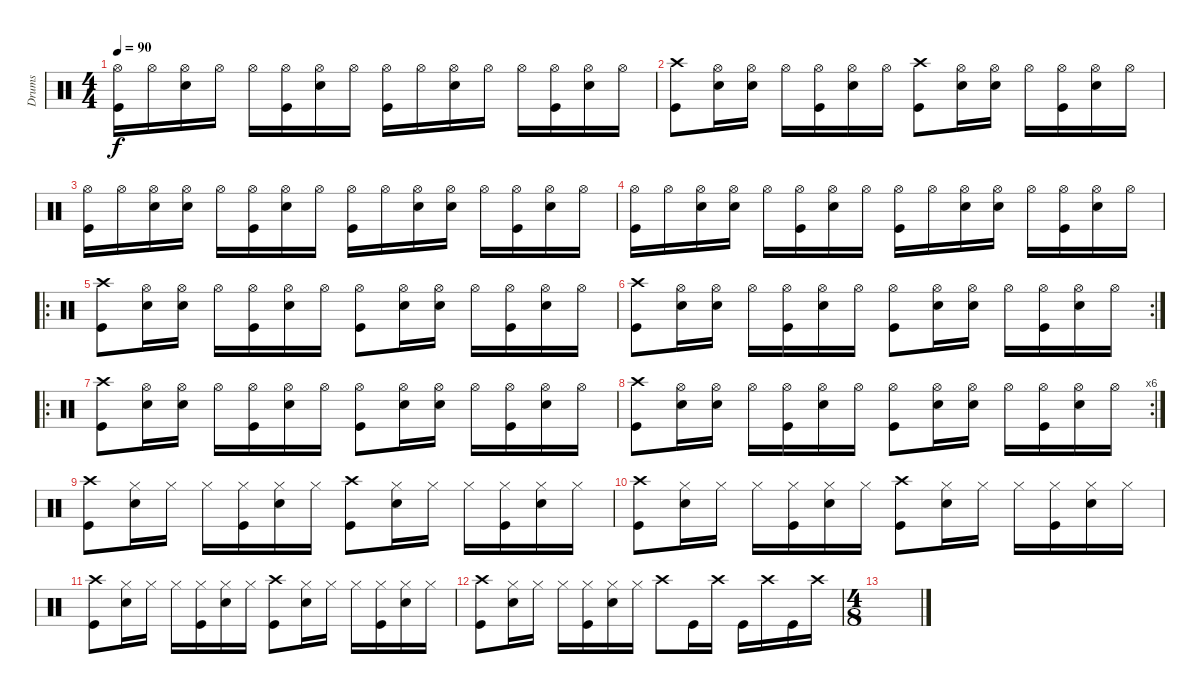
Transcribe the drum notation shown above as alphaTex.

\track ("Drums" "Drums") {instrument percussion}
\staff {score}
\articulation defaults
\ts (4 4)
\tempo 90
\clef neutral
\ks c
("Hi-Hat (open)" "Kick (hit)").16{dy f} "Hi-Hat (open)".16 ("Hi-Hat (open)" "Snare (hit) 2").16 "Hi-Hat (open)".16 "Hi-Hat (open)".16 ("Hi-Hat (open)" "Kick (hit)").16 ("Hi-Hat (open)" "Snare (hit) 2").16 "Hi-Hat (open)".16 ("Hi-Hat (open)" "Kick (hit)").16 "Hi-Hat (open)".16 ("Hi-Hat (open)" "Snare (hit) 2").16 "Hi-Hat (open)".16 "Hi-Hat (open)".16 ("Hi-Hat (open)" "Kick (hit)").16 ("Hi-Hat (open)" "Snare (hit) 2").16 "Hi-Hat (open)".16 |
("Crash high (hit)" "Kick (hit)").8 ("Hi-Hat (open)" "Snare (hit) 2").16 ("Hi-Hat (open)" "Snare (hit) 2").16 "Hi-Hat (open)".16 ("Hi-Hat (open)" "Kick (hit)").16 ("Hi-Hat (open)" "Snare (hit) 2").16 "Hi-Hat (open)".16 ("Crash high (hit)" "Kick (hit)").8 ("Hi-Hat (open)" "Snare (hit) 2").16 ("Hi-Hat (open)" "Snare (hit) 2").16 "Hi-Hat (open)".16 ("Hi-Hat (open)" "Kick (hit)").16 ("Hi-Hat (open)" "Snare (hit) 2").16 "Hi-Hat (open)".16 |
("Hi-Hat (open)" "Kick (hit)").16 "Hi-Hat (open)".16 ("Hi-Hat (open)" "Snare (hit) 2").16 ("Hi-Hat (open)" "Snare (hit) 2").16 "Hi-Hat (open)".16 ("Hi-Hat (open)" "Kick (hit)").16 ("Hi-Hat (open)" "Snare (hit) 2").16 "Hi-Hat (open)".16 ("Hi-Hat (open)" "Kick (hit)").16 "Hi-Hat (open)".16 ("Hi-Hat (open)" "Snare (hit) 2").16 ("Hi-Hat (open)" "Snare (hit) 2").16 "Hi-Hat (open)".16 ("Hi-Hat (open)" "Kick (hit)").16 ("Hi-Hat (open)" "Snare (hit) 2").16 "Hi-Hat (open)".16 |
("Hi-Hat (open)" "Kick (hit)").16 "Hi-Hat (open)".16 ("Hi-Hat (open)" "Snare (hit) 2").16 ("Hi-Hat (open)" "Snare (hit) 2").16 "Hi-Hat (open)".16 ("Hi-Hat (open)" "Kick (hit)").16 ("Hi-Hat (open)" "Snare (hit) 2").16 "Hi-Hat (open)".16 ("Hi-Hat (open)" "Kick (hit)").16 "Hi-Hat (open)".16 ("Hi-Hat (open)" "Snare (hit) 2").16 ("Hi-Hat (open)" "Snare (hit) 2").16 "Hi-Hat (open)".16 ("Hi-Hat (open)" "Kick (hit)").16 ("Hi-Hat (open)" "Snare (hit) 2").16 "Hi-Hat (open)".16 |
\ro
("Crash high (hit)" "Kick (hit)").8 ("Hi-Hat (open)" "Snare (hit) 2").16 ("Hi-Hat (open)" "Snare (hit) 2").16 "Hi-Hat (open)".16 ("Hi-Hat (open)" "Kick (hit)").16 ("Hi-Hat (open)" "Snare (hit) 2").16 "Hi-Hat (open)".16 ("Hi-Hat (open)" "Kick (hit)").8 ("Hi-Hat (open)" "Snare (hit) 2").16 ("Hi-Hat (open)" "Snare (hit) 2").16 "Hi-Hat (open)".16 ("Hi-Hat (open)" "Kick (hit)").16 ("Hi-Hat (open)" "Snare (hit) 2").16 "Hi-Hat (open)".16 |
\rc 2
("Crash high (hit)" "Kick (hit)").8 ("Hi-Hat (open)" "Snare (hit) 2").16 ("Hi-Hat (open)" "Snare (hit) 2").16 "Hi-Hat (open)".16 ("Hi-Hat (open)" "Kick (hit)").16 ("Hi-Hat (open)" "Snare (hit) 2").16 "Hi-Hat (open)".16 ("Hi-Hat (open)" "Kick (hit)").8 ("Hi-Hat (open)" "Snare (hit) 2").16 ("Hi-Hat (open)" "Snare (hit) 2").16 "Hi-Hat (open)".16 ("Hi-Hat (open)" "Kick (hit)").16 ("Hi-Hat (open)" "Snare (hit) 2").16 "Hi-Hat (open)".16 |
\ro
("Crash high (hit)" "Kick (hit)").8 ("Hi-Hat (open)" "Snare (hit) 2").16 ("Hi-Hat (open)" "Snare (hit) 2").16 "Hi-Hat (open)".16 ("Hi-Hat (open)" "Kick (hit)").16 ("Hi-Hat (open)" "Snare (hit) 2").16 "Hi-Hat (open)".16 ("Hi-Hat (open)" "Kick (hit)").8 ("Hi-Hat (open)" "Snare (hit) 2").16 ("Hi-Hat (open)" "Snare (hit) 2").16 "Hi-Hat (open)".16 ("Hi-Hat (open)" "Kick (hit)").16 ("Hi-Hat (open)" "Snare (hit) 2").16 "Hi-Hat (open)".16 |
\rc 6
("Crash high (hit)" "Kick (hit)").8 ("Hi-Hat (open)" "Snare (hit) 2").16 ("Hi-Hat (open)" "Snare (hit) 2").16 "Hi-Hat (open)".16 ("Hi-Hat (open)" "Kick (hit)").16 ("Hi-Hat (open)" "Snare (hit) 2").16 "Hi-Hat (open)".16 ("Hi-Hat (open)" "Kick (hit)").8 ("Hi-Hat (open)" "Snare (hit) 2").16 ("Hi-Hat (open)" "Snare (hit) 2").16 "Hi-Hat (open)".16 ("Hi-Hat (open)" "Kick (hit)").16 ("Hi-Hat (open)" "Snare (hit) 2").16 "Hi-Hat (open)".16 |
("Crash high (hit)" "Kick (hit)").8 ("Hi-Hat (closed)" "Snare (hit) 2").16 "Hi-Hat (closed)".16 "Hi-Hat (closed)".16 ("Hi-Hat (closed)" "Kick (hit)").16 ("Hi-Hat (closed)" "Snare (hit) 2").16 "Hi-Hat (closed)".16 ("Crash high (hit)" "Kick (hit)").8 ("Hi-Hat (closed)" "Snare (hit) 2").16 "Hi-Hat (closed)".16 "Hi-Hat (closed)".16 ("Hi-Hat (closed)" "Kick (hit)").16 ("Hi-Hat (closed)" "Snare (hit) 2").16 "Hi-Hat (closed)".16 |
("Crash high (hit)" "Kick (hit)").8 ("Hi-Hat (closed)" "Snare (hit) 2").16 "Hi-Hat (closed)".16 "Hi-Hat (closed)".16 ("Hi-Hat (closed)" "Kick (hit)").16 ("Hi-Hat (closed)" "Snare (hit) 2").16 "Hi-Hat (closed)".16 ("Crash high (hit)" "Kick (hit)").8 ("Hi-Hat (closed)" "Snare (hit) 2").16 "Hi-Hat (closed)".16 "Hi-Hat (closed)".16 ("Hi-Hat (closed)" "Kick (hit)").16 ("Hi-Hat (closed)" "Snare (hit) 2").16 "Hi-Hat (closed)".16 |
("Crash high (hit)" "Kick (hit)").8 ("Hi-Hat (closed)" "Snare (hit) 2").16 "Hi-Hat (closed)".16 "Hi-Hat (closed)".16 ("Hi-Hat (closed)" "Kick (hit)").16 ("Hi-Hat (closed)" "Snare (hit) 2").16 "Hi-Hat (closed)".16 ("Crash high (hit)" "Kick (hit)").8 ("Hi-Hat (closed)" "Snare (hit) 2").16 "Hi-Hat (closed)".16 "Hi-Hat (closed)".16 ("Hi-Hat (closed)" "Kick (hit)").16 ("Hi-Hat (closed)" "Snare (hit) 2").16 "Hi-Hat (closed)".16 |
("Crash high (hit)" "Kick (hit)").8 ("Hi-Hat (closed)" "Snare (hit) 2").16 "Hi-Hat (closed)".16 "Hi-Hat (closed)".16 ("Hi-Hat (closed)" "Kick (hit)").16 ("Hi-Hat (closed)" "Snare (hit) 2").16 "Hi-Hat (closed)".16 "Crash high (hit)".8 "Kick (hit)".16 "Crash high (hit)".16 "Kick (hit)".16 "Crash high (hit)".16 "Kick (hit)".16 "Crash high (hit)".16 |
\ts (4 8)
